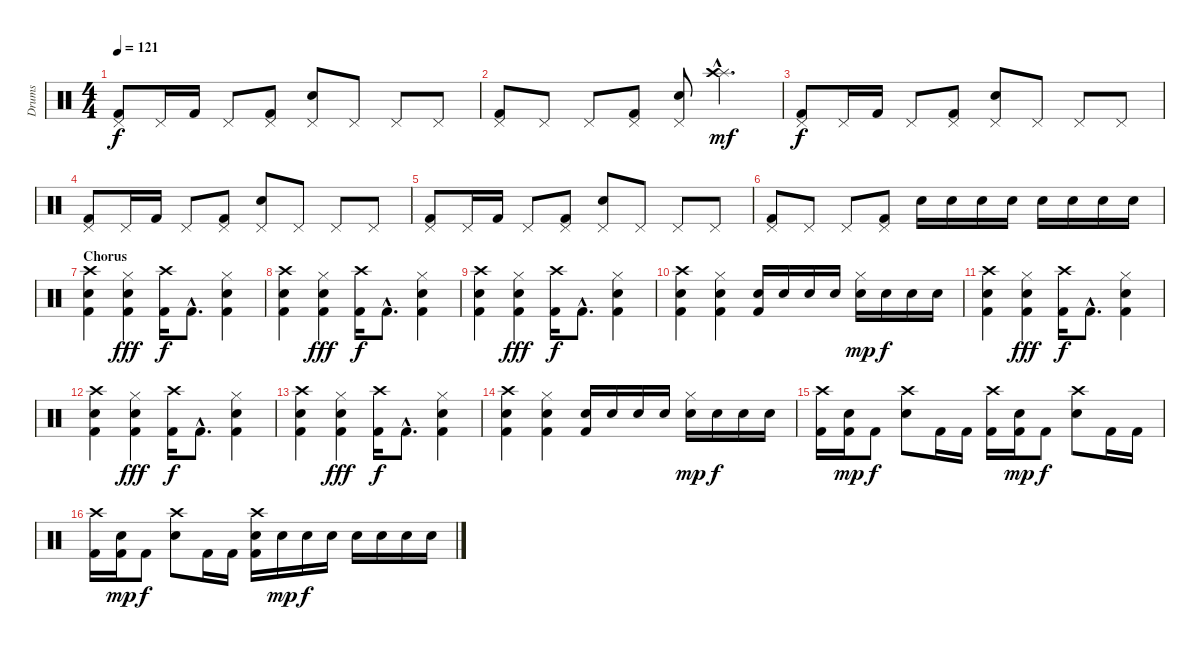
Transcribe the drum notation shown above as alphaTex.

\track ("Drums" "Drums") {instrument percussion}
\staff {score}
\articulation defaults
\ts (4 4)
\tempo 121
\clef neutral
\ks c
("Pedal Hi-Hat (hit)" "Kick (hit) 2").8{dy f} "Pedal Hi-Hat (hit)".16 "Kick (hit) 2".16 "Pedal Hi-Hat (hit)".8 ("Pedal Hi-Hat (hit)" "Kick (hit) 2").8 ("Pedal Hi-Hat (hit)" "Snare (hit) 2").8 "Pedal Hi-Hat (hit)".8 "Pedal Hi-Hat (hit)".8 "Pedal Hi-Hat (hit)".8 |
("Pedal Hi-Hat (hit)" "Kick (hit) 2").8 "Pedal Hi-Hat (hit)".8 "Pedal Hi-Hat (hit)".8 ("Pedal Hi-Hat (hit)" "Kick (hit) 2").8 ("Pedal Hi-Hat (hit)" "Snare (hit) 2").8 ("Splash (hit)"{hac} "Crash high (hit)"{hac}).4{d dy mf} |
("Pedal Hi-Hat (hit)" "Kick (hit) 2").8{dy f} "Pedal Hi-Hat (hit)".16 "Kick (hit) 2".16 "Pedal Hi-Hat (hit)".8 ("Pedal Hi-Hat (hit)" "Kick (hit) 2").8 ("Pedal Hi-Hat (hit)" "Snare (hit) 2").8 "Pedal Hi-Hat (hit)".8 "Pedal Hi-Hat (hit)".8 "Pedal Hi-Hat (hit)".8 |
("Pedal Hi-Hat (hit)" "Kick (hit) 2").8 "Pedal Hi-Hat (hit)".16 "Kick (hit) 2".16 "Pedal Hi-Hat (hit)".8 ("Pedal Hi-Hat (hit)" "Kick (hit) 2").8 ("Pedal Hi-Hat (hit)" "Snare (hit) 2").8 "Pedal Hi-Hat (hit)".8 "Pedal Hi-Hat (hit)".8 "Pedal Hi-Hat (hit)".8 |
("Pedal Hi-Hat (hit)" "Kick (hit) 2").8 "Pedal Hi-Hat (hit)".16 "Kick (hit) 2".16 "Pedal Hi-Hat (hit)".8 ("Pedal Hi-Hat (hit)" "Kick (hit) 2").8 ("Pedal Hi-Hat (hit)" "Snare (hit) 2").8 "Pedal Hi-Hat (hit)".8 "Pedal Hi-Hat (hit)".8 "Pedal Hi-Hat (hit)".8 |
("Pedal Hi-Hat (hit)" "Kick (hit) 2").8 "Pedal Hi-Hat (hit)".8 "Pedal Hi-Hat (hit)".8 ("Pedal Hi-Hat (hit)" "Kick (hit) 2").8 "Snare (hit) 2".16 "Snare (hit) 2".16 "Snare (hit) 2".16 "Snare (hit) 2".16 "Snare (hit) 2".16 "Snare (hit) 2".16 "Snare (hit) 2".16 "Snare (hit) 2".16 |
\section ("" "Chorus")
("Crash high (hit)" "Snare (hit) 2" "Kick (hit) 2").4 ("Hi-Hat (closed)" "Snare (hit) 2" "Kick (hit) 2").4{dy fff} ("Crash high (hit)" "Kick (hit) 2").16{dy f} "Kick (hit) 2"{hac}.8{d} ("Hi-Hat (closed)" "Snare (hit) 2" "Kick (hit) 2").4 |
("Crash high (hit)" "Snare (hit) 2" "Kick (hit) 2").4 ("Hi-Hat (closed)" "Snare (hit) 2" "Kick (hit) 2").4{dy fff} ("Crash high (hit)" "Kick (hit) 2").16{dy f} "Kick (hit) 2"{hac}.8{d} ("Hi-Hat (closed)" "Snare (hit) 2" "Kick (hit) 2").4 |
("Crash high (hit)" "Snare (hit) 2" "Kick (hit) 2").4 ("Hi-Hat (closed)" "Snare (hit) 2" "Kick (hit) 2").4{dy fff} ("Crash high (hit)" "Kick (hit) 2").16{dy f} "Kick (hit) 2"{hac}.8{d} ("Hi-Hat (closed)" "Snare (hit) 2" "Kick (hit) 2").4 |
("Crash high (hit)" "Snare (hit) 2" "Kick (hit) 2").4 ("Hi-Hat (closed)" "Snare (hit) 2" "Kick (hit) 2").4 ("Snare (hit) 2" "Kick (hit) 2").16 "Snare (hit) 2".16 "Snare (hit) 2".16 "Snare (hit) 2".16 ("Hi-Hat (closed)" "Snare (hit) 2").16{dy mp} "Snare (hit) 2".16{dy f} "Snare (hit) 2".16 "Snare (hit) 2".16 |
("Crash high (hit)" "Snare (hit) 2" "Kick (hit) 2").4 ("Hi-Hat (closed)" "Snare (hit) 2" "Kick (hit) 2").4{dy fff} ("Crash high (hit)" "Kick (hit) 2").16{dy f} "Kick (hit) 2"{hac}.8{d} ("Hi-Hat (closed)" "Snare (hit) 2" "Kick (hit) 2").4 |
("Crash high (hit)" "Snare (hit) 2" "Kick (hit) 2").4 ("Hi-Hat (closed)" "Snare (hit) 2" "Kick (hit) 2").4{dy fff} ("Crash high (hit)" "Kick (hit) 2").16{dy f} "Kick (hit) 2"{hac}.8{d} ("Hi-Hat (closed)" "Snare (hit) 2" "Kick (hit) 2").4 |
("Crash high (hit)" "Snare (hit) 2" "Kick (hit) 2").4 ("Hi-Hat (closed)" "Snare (hit) 2" "Kick (hit) 2").4{dy fff} ("Crash high (hit)" "Kick (hit) 2").16{dy f} "Kick (hit) 2"{hac}.8{d} ("Hi-Hat (closed)" "Snare (hit) 2" "Kick (hit) 2").4 |
("Crash high (hit)" "Snare (hit) 2" "Kick (hit) 2").4 ("Hi-Hat (closed)" "Snare (hit) 2" "Kick (hit) 2").4 ("Snare (hit) 2" "Kick (hit) 2").16 "Snare (hit) 2".16 "Snare (hit) 2".16 "Snare (hit) 2".16 ("Hi-Hat (closed)" "Snare (hit) 2").16{dy mp} "Snare (hit) 2".16{dy f} "Snare (hit) 2".16 "Snare (hit) 2".16 |
("Crash high (hit)" "Kick (hit) 2").16 ("Snare (hit) 2" "Kick (hit) 2").16{dy mp} "Kick (hit) 2".8{dy f} ("Crash high (hit)" "Snare (hit) 2").8 "Kick (hit) 2".16 "Kick (hit) 2".16 ("Crash high (hit)" "Kick (hit) 2").16 ("Snare (hit) 2" "Kick (hit) 2").16{dy mp} "Kick (hit) 2".8{dy f} ("Crash high (hit)" "Snare (hit) 2").8 "Kick (hit) 2".16 "Kick (hit) 2".16 |
("Crash high (hit)" "Kick (hit) 2").16 ("Snare (hit) 2" "Kick (hit) 2").16{dy mp} "Kick (hit) 2".8{dy f} ("Crash high (hit)" "Snare (hit) 2").8 "Kick (hit) 2".16 "Kick (hit) 2".16 ("Crash high (hit)" "Snare (hit) 2" "Kick (hit) 2").16 "Snare (hit) 2".16{dy mp} "Snare (hit) 2".16{dy f} "Snare (hit) 2".16 "Snare (hit) 2".16 "Snare (hit) 2".16 "Snare (hit) 2".16 "Snare (hit) 2".16
